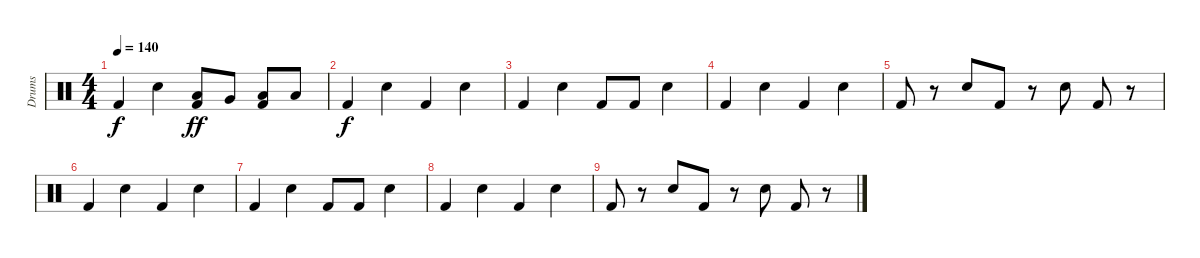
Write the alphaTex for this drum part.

\track ("Drums" "Drums") {instrument percussion}
\staff {score}
\articulation defaults
\ts (4 4)
\tempo 140
\clef neutral
\ks c "Kick (hit) 2".4{dy f} "Snare (hit) 2".4
("Low Tom (hit)" "Kick (hit) 2").8{dy ff} "Very Low Tom (hit)".8 ("Low Floor Tom (hit)" "Kick (hit) 2").8 "Low Floor Tom (hit)".8 |
"Kick (hit) 2".4{dy f} "Snare (hit) 2".4 "Kick (hit) 2".4 "Snare (hit) 2".4 |
"Kick (hit) 2".4 "Snare (hit) 2".4 "Kick (hit) 2".8 "Kick (hit) 2".8 "Snare (hit) 2".4 |
"Kick (hit) 2".4 "Snare (hit) 2".4 "Kick (hit) 2".4 "Snare (hit) 2".4 |
"Kick (hit) 2".8 r.8 "Snare (hit) 2".8 "Kick (hit) 2".8 r.8 "Snare (hit) 2".8 "Kick (hit) 2".8 r.8 |
"Kick (hit) 2".4 "Snare (hit) 2".4 "Kick (hit) 2".4 "Snare (hit) 2".4 |
"Kick (hit) 2".4 "Snare (hit) 2".4 "Kick (hit) 2".8 "Kick (hit) 2".8 "Snare (hit) 2".4 |
"Kick (hit) 2".4{volume 2} "Snare (hit) 2".4 "Kick (hit) 2".4 "Snare (hit) 2".4 |
"Kick (hit) 2".8 r.8 "Snare (hit) 2".8 "Kick (hit) 2".8 r.8 "Snare (hit) 2".8 "Kick (hit) 2".8 r.8
